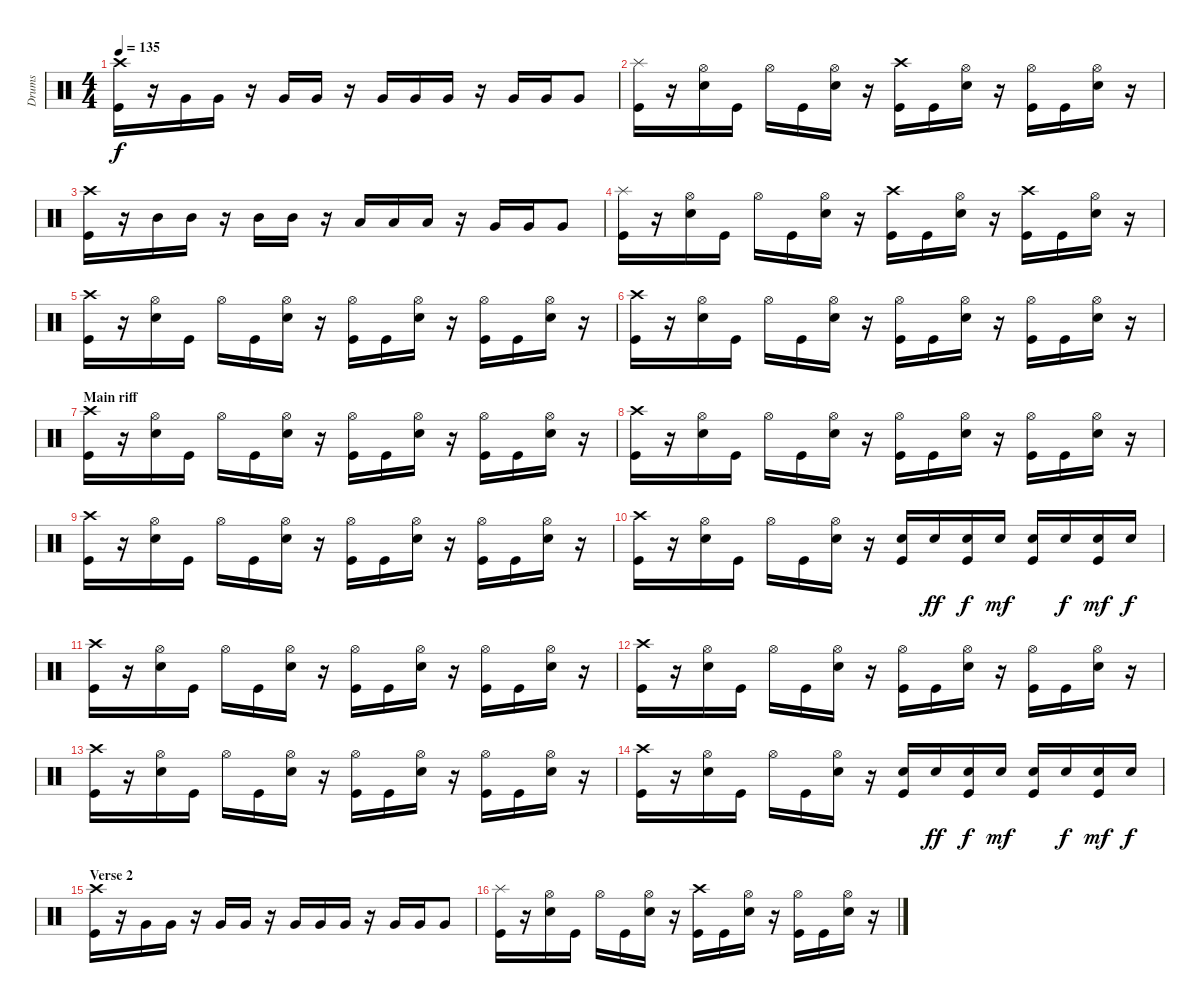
\track ("Drums" "Drums") {instrument percussion}
\staff {score}
\articulation defaults
\ts (4 4)
\tempo 135
\clef neutral
\ks c
("Crash high (hit)" "Kick (hit)").16{dy f} r.16 "Very Low Tom (hit)".16 "Very Low Tom (hit)".16 r.16 "Very Low Tom (hit)".16 "Very Low Tom (hit)".16 r.16 "Very Low Tom (hit)".16 "Very Low Tom (hit)".16 "Very Low Tom (hit)".16 r.16 "Very Low Tom (hit)".16 "Very Low Tom (hit)".16 "Very Low Tom (hit)".8 |
("Splash (hit)" "Kick (hit)").16 r.16 ("Hi-Hat (open)" "Snare (hit) 2").16 "Kick (hit)".16 "Hi-Hat (open)".16 "Kick (hit)".16 ("Hi-Hat (open)" "Snare (hit) 2").16 r.16 ("Crash high (hit)" "Kick (hit)").16 "Kick (hit)".16 ("Hi-Hat (open)" "Snare (hit) 2").16 r.16 ("Hi-Hat (open)" "Kick (hit)").16 "Kick (hit)".16 ("Hi-Hat (open)" "Snare (hit) 2").16 r.16 |
("Crash high (hit)" "Kick (hit)").16 r.16 "Mid Tom (hit)".16 "Mid Tom (hit)".16 r.16 "Mid Tom (hit)".16 "Mid Tom (hit)".16 r.16 "Low Tom (hit)".16 "Low Tom (hit)".16 "Low Tom (hit)".16 r.16 "Very Low Tom (hit)".16 "Very Low Tom (hit)".16 "Very Low Tom (hit)".8 |
("Splash (hit)" "Kick (hit)").16 r.16 ("Hi-Hat (open)" "Snare (hit) 2").16 "Kick (hit)".16 "Hi-Hat (open)".16 "Kick (hit)".16 ("Hi-Hat (open)" "Snare (hit) 2").16 r.16 ("Crash high (hit)" "Kick (hit)").16 "Kick (hit)".16 ("Hi-Hat (open)" "Snare (hit) 2").16 r.16 ("Crash high (hit)" "Kick (hit)").16 "Kick (hit)".16 ("Hi-Hat (open)" "Snare (hit) 2").16 r.16 |
("Crash high (hit)" "Kick (hit)").16 r.16 ("Hi-Hat (open)" "Snare (hit) 2").16 "Kick (hit)".16 "Hi-Hat (open)".16 "Kick (hit)".16 ("Hi-Hat (open)" "Snare (hit) 2").16 r.16 ("Hi-Hat (open)" "Kick (hit)").16 "Kick (hit)".16 ("Hi-Hat (open)" "Snare (hit) 2").16 r.16 ("Hi-Hat (open)" "Kick (hit)").16 "Kick (hit)".16 ("Hi-Hat (open)" "Snare (hit) 2").16 r.16 |
("Crash high (hit)" "Kick (hit)").16 r.16 ("Hi-Hat (open)" "Snare (hit) 2").16 "Kick (hit)".16 "Hi-Hat (open)".16 "Kick (hit)".16 ("Hi-Hat (open)" "Snare (hit) 2").16 r.16 ("Hi-Hat (open)" "Kick (hit)").16 "Kick (hit)".16 ("Hi-Hat (open)" "Snare (hit) 2").16 r.16 ("Hi-Hat (open)" "Kick (hit)").16 "Kick (hit)".16 ("Hi-Hat (open)" "Snare (hit) 2").16 r.16 |
\section ("" "Main riff")
("Crash high (hit)" "Kick (hit)").16 r.16 ("Hi-Hat (open)" "Snare (hit) 2").16 "Kick (hit)".16 "Hi-Hat (open)".16 "Kick (hit)".16 ("Hi-Hat (open)" "Snare (hit) 2").16 r.16 ("Hi-Hat (open)" "Kick (hit)").16 "Kick (hit)".16 ("Hi-Hat (open)" "Snare (hit) 2").16 r.16 ("Hi-Hat (open)" "Kick (hit)").16 "Kick (hit)".16 ("Hi-Hat (open)" "Snare (hit) 2").16 r.16 |
("Crash high (hit)" "Kick (hit)").16 r.16 ("Hi-Hat (open)" "Snare (hit) 2").16 "Kick (hit)".16 "Hi-Hat (open)".16 "Kick (hit)".16 ("Hi-Hat (open)" "Snare (hit) 2").16 r.16 ("Hi-Hat (open)" "Kick (hit)").16 "Kick (hit)".16 ("Hi-Hat (open)" "Snare (hit) 2").16 r.16 ("Hi-Hat (open)" "Kick (hit)").16 "Kick (hit)".16 ("Hi-Hat (open)" "Snare (hit) 2").16 r.16 |
("Crash high (hit)" "Kick (hit)").16 r.16 ("Hi-Hat (open)" "Snare (hit) 2").16 "Kick (hit)".16 "Hi-Hat (open)".16 "Kick (hit)".16 ("Hi-Hat (open)" "Snare (hit) 2").16 r.16 ("Hi-Hat (open)" "Kick (hit)").16 "Kick (hit)".16 ("Hi-Hat (open)" "Snare (hit) 2").16 r.16 ("Hi-Hat (open)" "Kick (hit)").16 "Kick (hit)".16 ("Hi-Hat (open)" "Snare (hit) 2").16 r.16 |
("Crash high (hit)" "Kick (hit)").16 r.16 ("Hi-Hat (open)" "Snare (hit) 2").16 "Kick (hit)".16 "Hi-Hat (open)".16 "Kick (hit)".16 ("Hi-Hat (open)" "Snare (hit) 2").16 r.16 ("Snare (hit) 2" "Kick (hit)").16 "Snare (hit) 2".16{dy ff} ("Snare (hit) 2" "Kick (hit)").16{dy f} "Snare (hit) 2".16{dy mf} ("Snare (hit) 2" "Kick (hit)").16 "Snare (hit) 2".16{dy f} ("Snare (hit) 2" "Kick (hit)").16{dy mf} "Snare (hit) 2".16{dy f} |
("Crash high (hit)" "Kick (hit)").16 r.16 ("Hi-Hat (open)" "Snare (hit) 2").16 "Kick (hit)".16 "Hi-Hat (open)".16 "Kick (hit)".16 ("Hi-Hat (open)" "Snare (hit) 2").16 r.16 ("Hi-Hat (open)" "Kick (hit)").16 "Kick (hit)".16 ("Hi-Hat (open)" "Snare (hit) 2").16 r.16 ("Hi-Hat (open)" "Kick (hit)").16 "Kick (hit)".16 ("Hi-Hat (open)" "Snare (hit) 2").16 r.16 |
("Crash high (hit)" "Kick (hit)").16 r.16 ("Hi-Hat (open)" "Snare (hit) 2").16 "Kick (hit)".16 "Hi-Hat (open)".16 "Kick (hit)".16 ("Hi-Hat (open)" "Snare (hit) 2").16 r.16 ("Hi-Hat (open)" "Kick (hit)").16 "Kick (hit)".16 ("Hi-Hat (open)" "Snare (hit) 2").16 r.16 ("Hi-Hat (open)" "Kick (hit)").16 "Kick (hit)".16 ("Hi-Hat (open)" "Snare (hit) 2").16 r.16 |
("Crash high (hit)" "Kick (hit)").16 r.16 ("Hi-Hat (open)" "Snare (hit) 2").16 "Kick (hit)".16 "Hi-Hat (open)".16 "Kick (hit)".16 ("Hi-Hat (open)" "Snare (hit) 2").16 r.16 ("Hi-Hat (open)" "Kick (hit)").16 "Kick (hit)".16 ("Hi-Hat (open)" "Snare (hit) 2").16 r.16 ("Hi-Hat (open)" "Kick (hit)").16 "Kick (hit)".16 ("Hi-Hat (open)" "Snare (hit) 2").16 r.16 |
("Crash high (hit)" "Kick (hit)").16 r.16 ("Hi-Hat (open)" "Snare (hit) 2").16 "Kick (hit)".16 "Hi-Hat (open)".16 "Kick (hit)".16 ("Hi-Hat (open)" "Snare (hit) 2").16 r.16 ("Snare (hit) 2" "Kick (hit)").16 "Snare (hit) 2".16{dy ff} ("Snare (hit) 2" "Kick (hit)").16{dy f} "Snare (hit) 2".16{dy mf} ("Snare (hit) 2" "Kick (hit)").16 "Snare (hit) 2".16{dy f} ("Snare (hit) 2" "Kick (hit)").16{dy mf} "Snare (hit) 2".16{dy f} |
\section ("" "Verse 2")
("Crash high (hit)" "Kick (hit)").16 r.16 "Very Low Tom (hit)".16 "Very Low Tom (hit)".16 r.16 "Very Low Tom (hit)".16 "Very Low Tom (hit)".16 r.16 "Very Low Tom (hit)".16 "Very Low Tom (hit)".16 "Very Low Tom (hit)".16 r.16 "Very Low Tom (hit)".16 "Very Low Tom (hit)".16 "Very Low Tom (hit)".8 |
("Splash (hit)" "Kick (hit)").16 r.16 ("Hi-Hat (open)" "Snare (hit) 2").16 "Kick (hit)".16 "Hi-Hat (open)".16 "Kick (hit)".16 ("Hi-Hat (open)" "Snare (hit) 2").16 r.16 ("Crash high (hit)" "Kick (hit)").16 "Kick (hit)".16 ("Hi-Hat (open)" "Snare (hit) 2").16 r.16 ("Hi-Hat (open)" "Kick (hit)").16 "Kick (hit)".16 ("Hi-Hat (open)" "Snare (hit) 2").16 r.16
